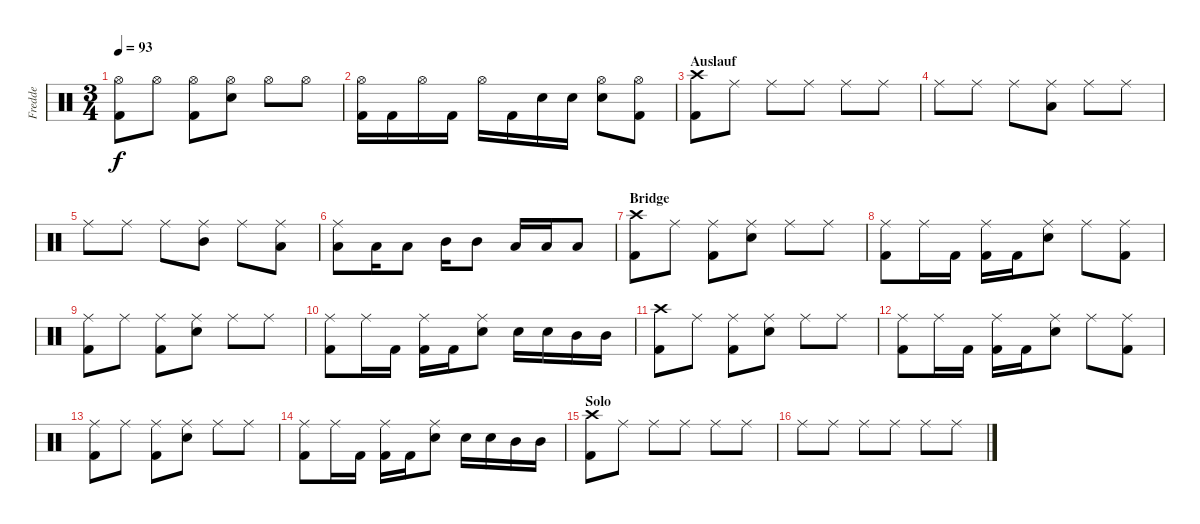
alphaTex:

\track ("Fredde" "Fredde") {instrument percussion}
\staff {score}
\articulation defaults
\ts (3 4)
\tempo 93
\clef neutral
\ks c
("Hi-Hat (open)" "Kick (hit) 2").8{dy f} "Hi-Hat (open)".8 ("Hi-Hat (open)" "Kick (hit) 2").8 ("Hi-Hat (open)" "Snare (hit) 2").8 "Hi-Hat (open)".8 "Hi-Hat (open)".8 |
("Hi-Hat (open)" "Kick (hit) 2").16 "Kick (hit) 2".16 "Hi-Hat (open)".16 "Kick (hit) 2".16 "Hi-Hat (open)".16 "Kick (hit) 2".16 "Snare (hit) 2".16 "Snare (hit) 2".16 ("Hi-Hat (open)" "Snare (hit) 2").8 ("Hi-Hat (open)" "Kick (hit) 2").8 |
\section ("" "Auslauf")
("Crash high (hit)" "Kick (hit) 2").8 "Ride (middle)".8 "Ride (middle)".8 "Ride (middle)".8 "Ride (middle)".8 "Ride (middle)".8 |
"Ride (middle)".8 "Ride (middle)".8 "Ride (middle)".8 ("Ride (middle)" "Low Tom (hit)").8 "Ride (middle)".8 "Ride (middle)".8 |
"Ride (middle)".8 "Ride (middle)".8 "Ride (middle)".8 ("Ride (middle)" "Mid Tom (hit)").8 "Ride (middle)".8 ("Ride (middle)" "Low Floor Tom (hit)").8 |
("Ride (middle)" "Low Tom (hit)").8 "Low Tom (hit)".16 "Low Tom (hit)".8 "Mid Tom (hit)".16 "Mid Tom (hit)".8 "Low Tom (hit)".16 "Low Tom (hit)".16 "Low Floor Tom (hit)".8 |
\section ("" "Bridge")
("Crash high (hit)" "Kick (hit) 2").8 "Ride (middle)".8 ("Ride (middle)" "Kick (hit) 2").8 ("Ride (middle)" "Snare (hit) 2").8 "Ride (middle)".8 "Ride (middle)".8 |
("Ride (middle)" "Kick (hit) 2").8 "Ride (middle)".16 "Kick (hit) 2".16 ("Ride (middle)" "Kick (hit) 2").16 "Kick (hit) 2".16 ("Ride (middle)" "Snare (hit) 2").8 "Ride (middle)".8 ("Ride (middle)" "Kick (hit) 2").8 |
("Ride (middle)" "Kick (hit) 2").8 "Ride (middle)".8 ("Ride (middle)" "Kick (hit) 2").8 ("Ride (middle)" "Snare (hit) 2").8 "Ride (middle)".8 "Ride (middle)".8 |
("Ride (middle)" "Kick (hit) 2").8 "Ride (middle)".16 "Kick (hit) 2".16 ("Ride (middle)" "Kick (hit) 2").16 "Kick (hit) 2".16 ("Ride (middle)" "Snare (hit) 2").8 "Snare (hit) 2".16 "Snare (hit) 2".16 "Mid Tom (hit)".16 "Mid Tom (hit)".16 |
("Crash high (hit)" "Kick (hit) 2").8 "Ride (middle)".8 ("Ride (middle)" "Kick (hit) 2").8 ("Ride (middle)" "Snare (hit) 2").8 "Ride (middle)".8 "Ride (middle)".8 |
("Ride (middle)" "Kick (hit) 2").8 "Ride (middle)".16 "Kick (hit) 2".16 ("Ride (middle)" "Kick (hit) 2").16 "Kick (hit) 2".16 ("Ride (middle)" "Snare (hit) 2").8 "Ride (middle)".8 ("Ride (middle)" "Kick (hit) 2").8 |
("Ride (middle)" "Kick (hit) 2").8 "Ride (middle)".8 ("Ride (middle)" "Kick (hit) 2").8 ("Ride (middle)" "Snare (hit) 2").8 "Ride (middle)".8 "Ride (middle)".8 |
("Ride (middle)" "Kick (hit) 2").8 "Ride (middle)".16 "Kick (hit) 2".16 ("Ride (middle)" "Kick (hit) 2").16 "Kick (hit) 2".16 ("Ride (middle)" "Snare (hit) 2").8 "Snare (hit) 2".16 "Snare (hit) 2".16 "Mid Tom (hit)".16 "Mid Tom (hit)".16 |
\section ("" "Solo")
("Crash high (hit)" "Kick (hit) 2").8 "Ride (middle)".8 "Ride (middle)".8 "Ride (middle)".8 "Ride (middle)".8 "Ride (middle)".8 |
"Ride (middle)".8 "Ride (middle)".8 "Ride (middle)".8 "Ride (middle)".8 "Ride (middle)".8 "Ride (middle)".8
